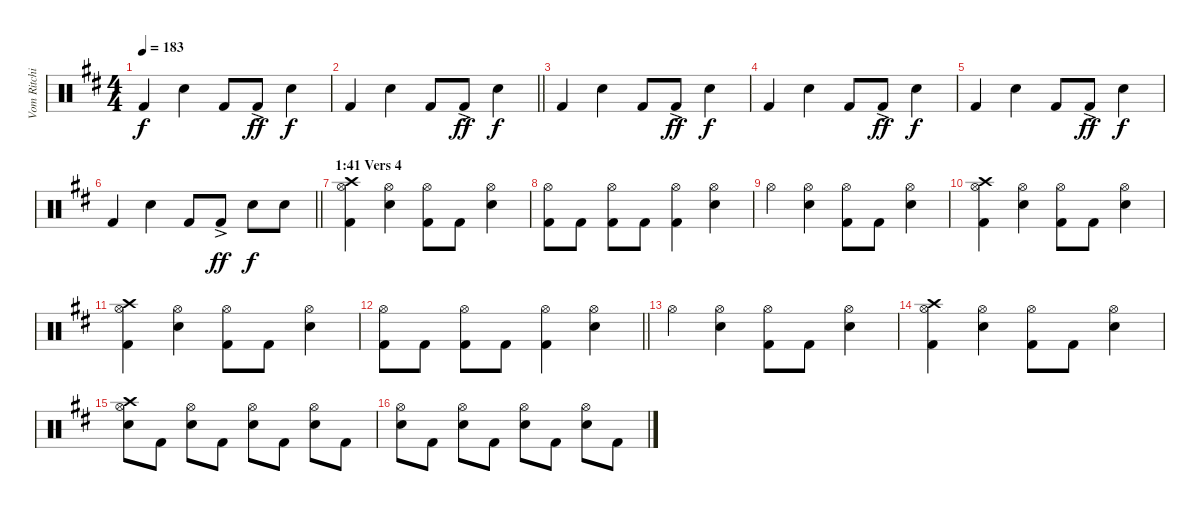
\track ("Vom Ritchie" "Vom Ritchi") {instrument percussion}
\staff {score}
\articulation defaults
\ts (4 4)
\tempo 183
\clef neutral
\ks d "Kick (hit) 2".4{dy f} "Snare (hit) 2".4 "Kick (hit) 2".8 "Kick (hit) 2"{ac}.8{dy ff} "Snare (hit) 2".4{dy f}
|
\barLineRight lightlight "Kick (hit) 2".4 "Snare (hit) 2".4 "Kick (hit) 2".8 "Kick (hit) 2"{ac}.8{dy ff} "Snare (hit) 2".4{dy f}
|
"Kick (hit) 2".4 "Snare (hit) 2".4 "Kick (hit) 2".8 "Kick (hit) 2"{ac}.8{dy ff} "Snare (hit) 2".4{dy f} |
"Kick (hit) 2".4 "Snare (hit) 2".4 "Kick (hit) 2".8 "Kick (hit) 2"{ac}.8{dy ff} "Snare (hit) 2".4{dy f} |
"Kick (hit) 2".4 "Snare (hit) 2".4 "Kick (hit) 2".8 "Kick (hit) 2"{ac}.8{dy ff} "Snare (hit) 2".4{dy f} |
\barLineRight lightlight "Kick (hit) 2".4 "Snare (hit) 2".4 "Kick (hit) 2".8 "Kick (hit) 2"{ac}.8{dy ff} "Snare (hit) 2".8{dy f} "Snare (hit) 2".8
|
\section ("" "1:41 Vers 4")
("Crash high (hit)" "Hi-Hat (open)" "Kick (hit) 2").4 ("Snare (hit) 2" "Hi-Hat (open)").4 ("Hi-Hat (open)" "Kick (hit) 2").8 "Kick (hit) 2".8 ("Snare (hit) 2" "Hi-Hat (open)").4 |
("Hi-Hat (open)" "Kick (hit) 2").8 "Kick (hit) 2".8 ("Hi-Hat (open)" "Kick (hit) 2").8 "Kick (hit) 2".8 ("Hi-Hat (open)" "Kick (hit) 2").4 ("Hi-Hat (open)" "Snare (hit) 2").4 |
"Hi-Hat (open)".4 ("Snare (hit) 2" "Hi-Hat (open)").4 ("Hi-Hat (open)" "Kick (hit) 2").8 "Kick (hit) 2".8 ("Snare (hit) 2" "Hi-Hat (open)").4 |
("Crash high (hit)" "Hi-Hat (open)" "Kick (hit) 2").4 ("Snare (hit) 2" "Hi-Hat (open)").4 ("Hi-Hat (open)" "Kick (hit) 2").8 "Kick (hit) 2".8 ("Snare (hit) 2" "Hi-Hat (open)").4 |
("Crash high (hit)" "Hi-Hat (open)" "Kick (hit) 2").4 ("Snare (hit) 2" "Hi-Hat (open)").4 ("Hi-Hat (open)" "Kick (hit) 2").8 "Kick (hit) 2".8 ("Snare (hit) 2" "Hi-Hat (open)").4 |
\barLineRight lightlight
("Hi-Hat (open)" "Kick (hit) 2").8 "Kick (hit) 2".8 ("Hi-Hat (open)" "Kick (hit) 2").8 "Kick (hit) 2".8 ("Hi-Hat (open)" "Kick (hit) 2").4 ("Hi-Hat (open)" "Snare (hit) 2").4 |
"Hi-Hat (open)".4 ("Snare (hit) 2" "Hi-Hat (open)").4 ("Hi-Hat (open)" "Kick (hit) 2").8 "Kick (hit) 2".8 ("Snare (hit) 2" "Hi-Hat (open)").4 |
("Crash high (hit)" "Hi-Hat (open)" "Kick (hit) 2").4 ("Snare (hit) 2" "Hi-Hat (open)").4 ("Hi-Hat (open)" "Kick (hit) 2").8 "Kick (hit) 2".8 ("Snare (hit) 2" "Hi-Hat (open)").4 |
("Crash high (hit)" "Snare (hit) 2" "Hi-Hat (open)").8 "Kick (hit) 2".8 ("Snare (hit) 2" "Hi-Hat (open)").8 "Kick (hit) 2".8 ("Snare (hit) 2" "Hi-Hat (open)").8 "Kick (hit) 2".8 ("Snare (hit) 2" "Hi-Hat (open)").8 "Kick (hit) 2".8 |
("Snare (hit) 2" "Hi-Hat (open)").8 "Kick (hit) 2".8 ("Snare (hit) 2" "Hi-Hat (open)").8 "Kick (hit) 2".8 ("Snare (hit) 2" "Hi-Hat (open)").8 "Kick (hit) 2".8 ("Snare (hit) 2" "Hi-Hat (open)").8 "Kick (hit) 2".8
